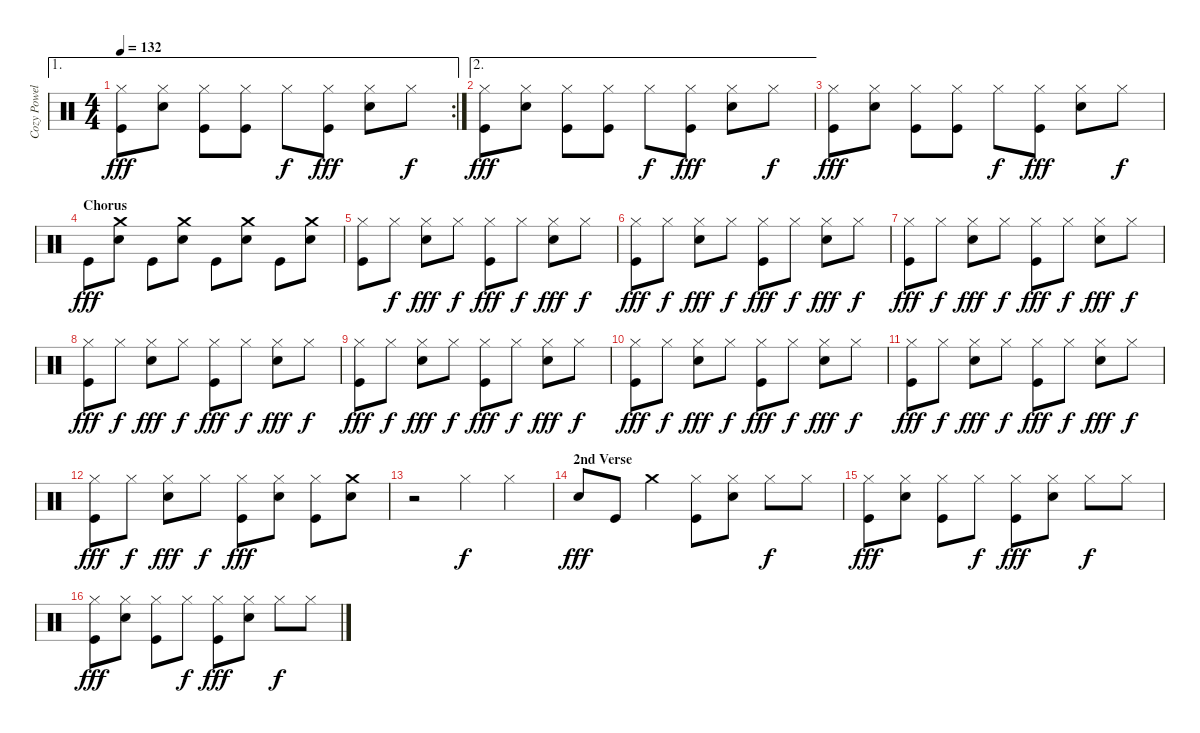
\track ("Cozy Powell" "Cozy Powel") {instrument percussion}
\staff {score}
\articulation defaults
\ae 1
\rc 2
\ts (4 4)
\tempo 132
\clef neutral
\ks c
("Kick (hit)" "Hi-Hat (closed)").8{dy fff} ("Snare (hit) 2" "Hi-Hat (closed)").8 ("Kick (hit)" "Hi-Hat (closed)").8 ("Kick (hit)" "Hi-Hat (closed)").8 "Hi-Hat (closed)".8{dy f} ("Kick (hit)" "Hi-Hat (closed)").8{dy fff} ("Snare (hit) 2" "Hi-Hat (closed)").8 "Hi-Hat (closed)".8{dy f} |
\ae 2
("Kick (hit)" "Hi-Hat (closed)").8{dy fff} ("Snare (hit) 2" "Hi-Hat (closed)").8 ("Kick (hit)" "Hi-Hat (closed)").8 ("Kick (hit)" "Hi-Hat (closed)").8 "Hi-Hat (closed)".8{dy f} ("Kick (hit)" "Hi-Hat (closed)").8{dy fff} ("Snare (hit) 2" "Hi-Hat (closed)").8 "Hi-Hat (closed)".8{dy f} |
("Kick (hit)" "Hi-Hat (closed)").8{dy fff} ("Snare (hit) 2" "Hi-Hat (closed)").8 ("Kick (hit)" "Hi-Hat (closed)").8 ("Kick (hit)" "Hi-Hat (closed)").8 "Hi-Hat (closed)".8{dy f} ("Kick (hit)" "Hi-Hat (closed)").8{dy fff} ("Snare (hit) 2" "Hi-Hat (closed)").8 "Hi-Hat (closed)".8{dy f} |
\section ("" "Chorus")
"Kick (hit)".8{dy fff} ("Snare (hit) 2" "Crash medium (hit)").8 "Kick (hit)".8 ("Snare (hit) 2" "Crash medium (hit)").8 "Kick (hit)".8 ("Snare (hit) 2" "Crash medium (hit)").8 "Kick (hit)".8 ("Snare (hit) 2" "Crash medium (hit)").8 |
("Kick (hit)" "Hi-Hat (closed)").8 "Hi-Hat (closed)".8{dy f} ("Snare (hit) 2" "Hi-Hat (closed)").8{dy fff} "Hi-Hat (closed)".8{dy f} ("Kick (hit)" "Hi-Hat (closed)").8{dy fff} "Hi-Hat (closed)".8{dy f} ("Snare (hit) 2" "Hi-Hat (closed)").8{dy fff} "Hi-Hat (closed)".8{dy f} |
("Kick (hit)" "Hi-Hat (closed)").8{dy fff} "Hi-Hat (closed)".8{dy f} ("Snare (hit) 2" "Hi-Hat (closed)").8{dy fff} "Hi-Hat (closed)".8{dy f} ("Kick (hit)" "Hi-Hat (closed)").8{dy fff} "Hi-Hat (closed)".8{dy f} ("Snare (hit) 2" "Hi-Hat (closed)").8{dy fff} "Hi-Hat (closed)".8{dy f} |
("Kick (hit)" "Hi-Hat (closed)").8{dy fff} "Hi-Hat (closed)".8{dy f} ("Snare (hit) 2" "Hi-Hat (closed)").8{dy fff} "Hi-Hat (closed)".8{dy f} ("Kick (hit)" "Hi-Hat (closed)").8{dy fff} "Hi-Hat (closed)".8{dy f} ("Snare (hit) 2" "Hi-Hat (closed)").8{dy fff} "Hi-Hat (closed)".8{dy f} |
("Kick (hit)" "Hi-Hat (closed)").8{dy fff} "Hi-Hat (closed)".8{dy f} ("Snare (hit) 2" "Hi-Hat (closed)").8{dy fff} "Hi-Hat (closed)".8{dy f} ("Kick (hit)" "Hi-Hat (closed)").8{dy fff} "Hi-Hat (closed)".8{dy f} ("Snare (hit) 2" "Hi-Hat (closed)").8{dy fff} "Hi-Hat (closed)".8{dy f} |
("Kick (hit)" "Hi-Hat (closed)").8{dy fff} "Hi-Hat (closed)".8{dy f} ("Snare (hit) 2" "Hi-Hat (closed)").8{dy fff} "Hi-Hat (closed)".8{dy f} ("Kick (hit)" "Hi-Hat (closed)").8{dy fff} "Hi-Hat (closed)".8{dy f} ("Snare (hit) 2" "Hi-Hat (closed)").8{dy fff} "Hi-Hat (closed)".8{dy f} |
("Kick (hit)" "Hi-Hat (closed)").8{dy fff} "Hi-Hat (closed)".8{dy f} ("Snare (hit) 2" "Hi-Hat (closed)").8{dy fff} "Hi-Hat (closed)".8{dy f} ("Kick (hit)" "Hi-Hat (closed)").8{dy fff} "Hi-Hat (closed)".8{dy f} ("Snare (hit) 2" "Hi-Hat (closed)").8{dy fff} "Hi-Hat (closed)".8{dy f} |
("Kick (hit)" "Hi-Hat (closed)").8{dy fff} "Hi-Hat (closed)".8{dy f} ("Snare (hit) 2" "Hi-Hat (closed)").8{dy fff} "Hi-Hat (closed)".8{dy f} ("Kick (hit)" "Hi-Hat (closed)").8{dy fff} "Hi-Hat (closed)".8{dy f} ("Snare (hit) 2" "Hi-Hat (closed)").8{dy fff} "Hi-Hat (closed)".8{dy f} |
("Kick (hit)" "Hi-Hat (closed)").8{dy fff} "Hi-Hat (closed)".8{dy f} ("Snare (hit) 2" "Hi-Hat (closed)").8{dy fff} "Hi-Hat (closed)".8{dy f} ("Kick (hit)" "Hi-Hat (closed)").8{dy fff} ("Snare (hit) 2" "Hi-Hat (closed)").8 ("Kick (hit)" "Hi-Hat (closed)").8 ("Snare (hit) 2" "Crash medium (hit)").8 |
r.2 "Hi-Hat (closed)".4{dy f} "Hi-Hat (closed)".4 |
\section ("" "2nd Verse")
"Snare (hit) 2".8{dy fff} "Kick (hit)".8 "Crash medium (hit)".4 ("Kick (hit)" "Hi-Hat (closed)").8 ("Snare (hit) 2" "Hi-Hat (closed)").8 "Hi-Hat (closed)".8{dy f} "Hi-Hat (closed)".8 |
("Kick (hit)" "Hi-Hat (closed)").8{dy fff} ("Snare (hit) 2" "Hi-Hat (closed)").8 ("Kick (hit)" "Hi-Hat (closed)").8 "Hi-Hat (closed)".8{dy f} ("Kick (hit)" "Hi-Hat (closed)").8{dy fff} ("Snare (hit) 2" "Hi-Hat (closed)").8 "Hi-Hat (closed)".8{dy f} "Hi-Hat (closed)".8 |
("Kick (hit)" "Hi-Hat (closed)").8{dy fff} ("Snare (hit) 2" "Hi-Hat (closed)").8 ("Kick (hit)" "Hi-Hat (closed)").8 "Hi-Hat (closed)".8{dy f} ("Kick (hit)" "Hi-Hat (closed)").8{dy fff} ("Snare (hit) 2" "Hi-Hat (closed)").8 "Hi-Hat (closed)".8{dy f} "Hi-Hat (closed)".8
